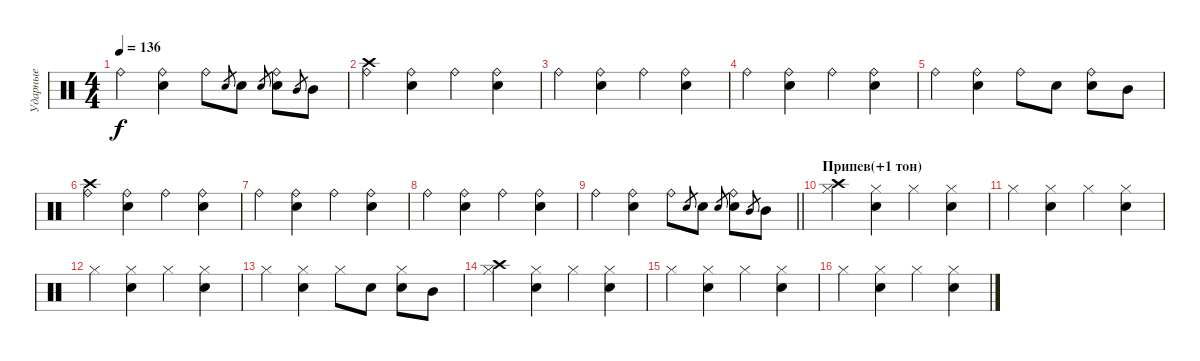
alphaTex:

\track ("Ударные" "Ударные") {instrument percussion}
\staff {score}
\articulation defaults
\ts (4 4)
\tempo 136
\clef neutral
\ks c "Ride (bell)".4{dy f}
("Ride (bell)" "Snare (hit) 2").4 "Ride (bell)".8 "Snare (hit) 2".8{gr} "Snare (hit) 2".8 "Snare (hit) 2".8{gr} ("Ride (bell)" "Snare (hit) 2").8 "Mid Tom (hit)".8{gr} "Mid Tom (hit)".8 |
("Ride (bell)" "Crash high (hit)").4 ("Ride (bell)" "Snare (hit) 2").4 "Ride (bell)".4 ("Ride (bell)" "Snare (hit) 2").4 |
"Ride (bell)".4 ("Ride (bell)" "Snare (hit) 2").4 "Ride (bell)".4 ("Ride (bell)" "Snare (hit) 2").4 |
"Ride (bell)".4 ("Ride (bell)" "Snare (hit) 2").4 "Ride (bell)".4 ("Ride (bell)" "Snare (hit) 2").4 |
"Ride (bell)".4 ("Ride (bell)" "Snare (hit) 2").4 "Ride (bell)".8 "Snare (hit) 2".8 ("Ride (bell)" "Snare (hit) 2").8 "Mid Tom (hit)".8 |
("Ride (bell)" "Crash high (hit)").4 ("Ride (bell)" "Snare (hit) 2").4 "Ride (bell)".4 ("Ride (bell)" "Snare (hit) 2").4 |
"Ride (bell)".4 ("Ride (bell)" "Snare (hit) 2").4 "Ride (bell)".4 ("Ride (bell)" "Snare (hit) 2").4 |
"Ride (bell)".4 ("Ride (bell)" "Snare (hit) 2").4 "Ride (bell)".4 ("Ride (bell)" "Snare (hit) 2").4 |
\barLineRight lightlight "Ride (bell)".4
("Ride (bell)" "Snare (hit) 2").4 "Ride (bell)".8 "Snare (hit) 2".8{gr} "Snare (hit) 2".8 "Snare (hit) 2".8{gr} ("Ride (bell)" "Snare (hit) 2").8 "Mid Tom (hit)".8{gr} "Mid Tom (hit)".8 |
\section ("" "Припев(+1 тон)")
("Hi-Hat (closed)" "Crash high (hit)").4 ("Hi-Hat (closed)" "Snare (hit) 2").4 "Hi-Hat (closed)".4 ("Hi-Hat (closed)" "Snare (hit) 2").4 |
"Hi-Hat (closed)".4 ("Hi-Hat (closed)" "Snare (hit) 2").4 "Hi-Hat (closed)".4 ("Hi-Hat (closed)" "Snare (hit) 2").4 |
"Hi-Hat (closed)".4 ("Hi-Hat (closed)" "Snare (hit) 2").4 "Hi-Hat (closed)".4 ("Hi-Hat (closed)" "Snare (hit) 2").4 |
"Hi-Hat (closed)".4 ("Hi-Hat (closed)" "Snare (hit) 2").4 "Hi-Hat (closed)".8 "Snare (hit) 2".8 ("Hi-Hat (closed)" "Snare (hit) 2").8 "Mid Tom (hit)".8 |
("Hi-Hat (closed)" "Crash high (hit)").4 ("Hi-Hat (closed)" "Snare (hit) 2").4 "Hi-Hat (closed)".4 ("Hi-Hat (closed)" "Snare (hit) 2").4 |
"Hi-Hat (closed)".4 ("Hi-Hat (closed)" "Snare (hit) 2").4 "Hi-Hat (closed)".4 ("Hi-Hat (closed)" "Snare (hit) 2").4 |
"Hi-Hat (closed)".4 ("Hi-Hat (closed)" "Snare (hit) 2").4 "Hi-Hat (closed)".4 ("Hi-Hat (closed)" "Snare (hit) 2").4
